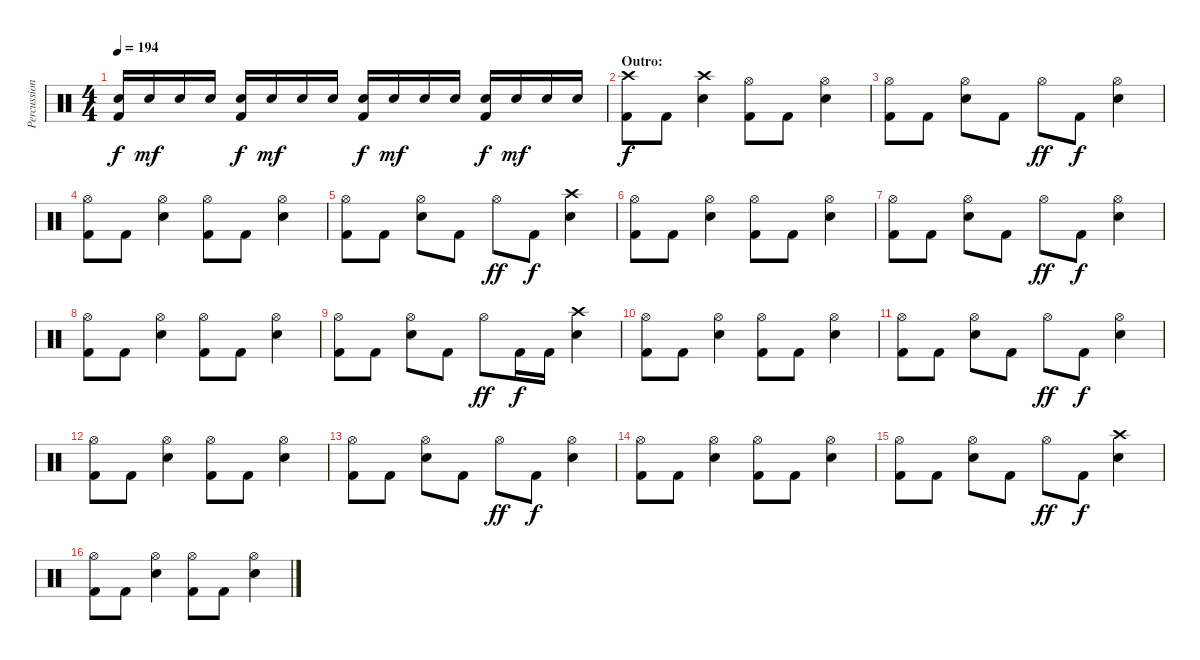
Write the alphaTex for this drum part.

\track ("Percussion" "Percussion") {instrument percussion}
\staff {score}
\articulation defaults
\ts (4 4)
\tempo 194
\clef neutral
\ks c
("Electric Snare (hit)" "Kick (hit) 2").16{dy f} "Electric Snare (hit)".16{dy mf} "Electric Snare (hit)".16 "Electric Snare (hit)".16 ("Electric Snare (hit)" "Kick (hit) 2").16{dy f} "Electric Snare (hit)".16{dy mf} "Electric Snare (hit)".16 "Electric Snare (hit)".16 ("Electric Snare (hit)" "Kick (hit) 2").16{dy f} "Electric Snare (hit)".16{dy mf} "Electric Snare (hit)".16 "Electric Snare (hit)".16 ("Electric Snare (hit)" "Kick (hit) 2").16{dy f} "Electric Snare (hit)".16{dy mf} "Electric Snare (hit)".16 "Electric Snare (hit)".16 |
\section ("" "Outro:")
("Crash high (hit)" "Kick (hit) 2").8{dy f} "Kick (hit) 2".8 ("Crash high (hit)" "Electric Snare (hit)").4 ("Hi-Hat (open)" "Kick (hit) 2").8 "Kick (hit) 2".8 ("Hi-Hat (open)" "Electric Snare (hit)").4 |
("Hi-Hat (open)" "Kick (hit) 2").8 "Kick (hit) 2".8 ("Hi-Hat (open)" "Electric Snare (hit)").8 "Kick (hit) 2".8 "Hi-Hat (open)".8{dy ff} "Kick (hit) 2".8{dy f} ("Hi-Hat (open)" "Electric Snare (hit)").4 |
("Hi-Hat (open)" "Kick (hit) 2").8 "Kick (hit) 2".8 ("Hi-Hat (open)" "Electric Snare (hit)").4 ("Hi-Hat (open)" "Kick (hit) 2").8 "Kick (hit) 2".8 ("Hi-Hat (open)" "Electric Snare (hit)").4 |
("Hi-Hat (open)" "Kick (hit) 2").8 "Kick (hit) 2".8 ("Hi-Hat (open)" "Electric Snare (hit)").8 "Kick (hit) 2".8 "Hi-Hat (open)".8{dy ff} "Kick (hit) 2".8{dy f} ("Crash high (hit)" "Electric Snare (hit)").4 |
("Hi-Hat (open)" "Kick (hit) 2").8 "Kick (hit) 2".8 ("Hi-Hat (open)" "Electric Snare (hit)").4 ("Hi-Hat (open)" "Kick (hit) 2").8 "Kick (hit) 2".8 ("Hi-Hat (open)" "Electric Snare (hit)").4 |
("Hi-Hat (open)" "Kick (hit) 2").8 "Kick (hit) 2".8 ("Hi-Hat (open)" "Electric Snare (hit)").8 "Kick (hit) 2".8 "Hi-Hat (open)".8{dy ff} "Kick (hit) 2".8{dy f} ("Hi-Hat (open)" "Electric Snare (hit)").4 |
("Hi-Hat (open)" "Kick (hit) 2").8 "Kick (hit) 2".8 ("Hi-Hat (open)" "Electric Snare (hit)").4 ("Hi-Hat (open)" "Kick (hit) 2").8 "Kick (hit) 2".8 ("Hi-Hat (open)" "Electric Snare (hit)").4 |
("Hi-Hat (open)" "Kick (hit) 2").8 "Kick (hit) 2".8 ("Hi-Hat (open)" "Electric Snare (hit)").8 "Kick (hit) 2".8 "Hi-Hat (open)".8{dy ff} "Kick (hit) 2".16{dy f} "Kick (hit) 2".16 ("Crash high (hit)" "Electric Snare (hit)").4 |
("Hi-Hat (open)" "Kick (hit) 2").8 "Kick (hit) 2".8 ("Hi-Hat (open)" "Electric Snare (hit)").4 ("Hi-Hat (open)" "Kick (hit) 2").8 "Kick (hit) 2".8 ("Hi-Hat (open)" "Electric Snare (hit)").4 |
("Hi-Hat (open)" "Kick (hit) 2").8 "Kick (hit) 2".8 ("Hi-Hat (open)" "Electric Snare (hit)").8 "Kick (hit) 2".8 "Hi-Hat (open)".8{dy ff} "Kick (hit) 2".8{dy f} ("Hi-Hat (open)" "Electric Snare (hit)").4 |
("Hi-Hat (open)" "Kick (hit) 2").8 "Kick (hit) 2".8 ("Hi-Hat (open)" "Electric Snare (hit)").4 ("Hi-Hat (open)" "Kick (hit) 2").8 "Kick (hit) 2".8 ("Hi-Hat (open)" "Electric Snare (hit)").4 |
("Hi-Hat (open)" "Kick (hit) 2").8 "Kick (hit) 2".8 ("Hi-Hat (open)" "Electric Snare (hit)").8 "Kick (hit) 2".8 "Hi-Hat (open)".8{dy ff} "Kick (hit) 2".8{dy f} ("Hi-Hat (open)" "Electric Snare (hit)").4 |
("Hi-Hat (open)" "Kick (hit) 2").8 "Kick (hit) 2".8 ("Hi-Hat (open)" "Electric Snare (hit)").4 ("Hi-Hat (open)" "Kick (hit) 2").8 "Kick (hit) 2".8 ("Hi-Hat (open)" "Electric Snare (hit)").4 |
("Hi-Hat (open)" "Kick (hit) 2").8 "Kick (hit) 2".8 ("Hi-Hat (open)" "Electric Snare (hit)").8 "Kick (hit) 2".8 "Hi-Hat (open)".8{dy ff} "Kick (hit) 2".8{dy f} ("Crash high (hit)" "Electric Snare (hit)").4 |
("Hi-Hat (open)" "Kick (hit) 2").8 "Kick (hit) 2".8 ("Hi-Hat (open)" "Electric Snare (hit)").4 ("Hi-Hat (open)" "Kick (hit) 2").8 "Kick (hit) 2".8 ("Hi-Hat (open)" "Electric Snare (hit)").4
